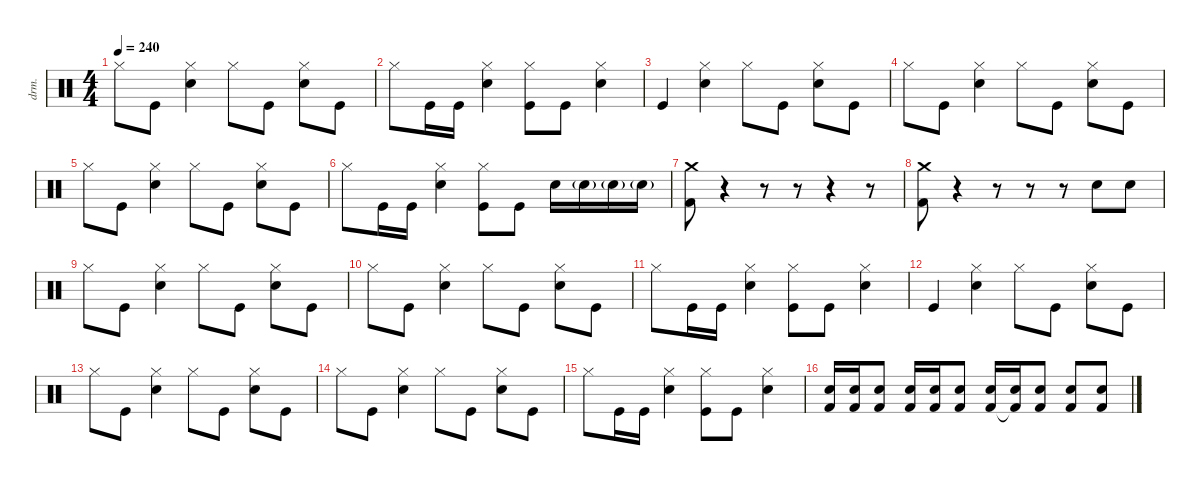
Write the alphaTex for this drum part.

\defaultSystemsLayout 4
\hideDynamics
\bracketExtendMode nobrackets
\track ("dany" "drm.") {instrument percussion}
\staff {score}
\articulation defaults
\ts (4 4)
\tempo 240
\clef neutral
\ks c "Hi-Hat (closed)".8{dy f beam Down} "Kick (hit)".8{beam Down}
("Snare (hit) 2" "Hi-Hat (closed)").4{beam Down} "Hi-Hat (closed)".8{beam Down} "Kick (hit)".8{beam Down} ("Snare (hit) 2" "Hi-Hat (closed)").8{beam Down} "Kick (hit)".8{beam Down} |
"Hi-Hat (closed)".8{beam Down} "Kick (hit)".16{beam Down} "Kick (hit)".16{beam Down} ("Snare (hit) 2" "Hi-Hat (closed)").4{beam Down} ("Kick (hit)" "Hi-Hat (closed)").8{beam Down} "Kick (hit)".8{beam Down} ("Snare (hit) 2" "Hi-Hat (closed)").4{beam Down} |
"Kick (hit)".4{beam Up} ("Snare (hit) 2" "Hi-Hat (closed)").4{beam Down} "Hi-Hat (closed)".8{beam Down} "Kick (hit)".8{beam Down} ("Snare (hit) 2" "Hi-Hat (closed)").8{beam Down} "Kick (hit)".8{beam Down} |
"Hi-Hat (closed)".8{beam Down} "Kick (hit)".8{beam Down} ("Snare (hit) 2" "Hi-Hat (closed)").4{beam Down} "Hi-Hat (closed)".8{beam Down} "Kick (hit)".8{beam Down} ("Snare (hit) 2" "Hi-Hat (closed)").8{beam Down} "Kick (hit)".8{beam Down} |
"Hi-Hat (closed)".8{beam Down} "Kick (hit)".8{beam Down} ("Snare (hit) 2" "Hi-Hat (closed)").4{beam Down} "Hi-Hat (closed)".8{beam Down} "Kick (hit)".8{beam Down} ("Snare (hit) 2" "Hi-Hat (closed)").8{beam Down} "Kick (hit)".8{beam Down} |
"Hi-Hat (closed)".8{beam Down} "Kick (hit)".16{beam Down} "Kick (hit)".16{beam Down} ("Snare (hit) 2" "Hi-Hat (closed)").4{beam Down} ("Kick (hit)" "Hi-Hat (closed)").8{beam Down} "Kick (hit)".8{beam Down} "Snare (hit) 2".16{dy mf beam Down} "Snare (hit) 2"{g}.16{dy f beam Down} "Snare (hit) 2"{g}.16{beam Down} "Snare (hit) 2"{g}.16{beam Down} |
("Kick (hit) 2" "Crash medium (hit)").8{beam Down} r.4{beam Down} r.8{beam Down} r.8{beam Down} r.4{beam Down} r.8{beam Down} |
("Kick (hit) 2" "Crash medium (hit)").8{beam Down} r.4{beam Down} r.8{beam Down} r.8{beam Down} r.8{beam Down} "Snare (hit) 2".8{beam Down} "Snare (hit) 2".8{beam Down} |
"Hi-Hat (closed)".8{beam Down} "Kick (hit)".8{beam Down} ("Snare (hit) 2" "Hi-Hat (closed)").4{beam Down} "Hi-Hat (closed)".8{beam Down} "Kick (hit)".8{beam Down} ("Snare (hit) 2" "Hi-Hat (closed)").8{beam Down} "Kick (hit)".8{beam Down} |
"Hi-Hat (closed)".8{beam Down} "Kick (hit)".8{beam Down} ("Snare (hit) 2" "Hi-Hat (closed)").4{beam Down} "Hi-Hat (closed)".8{beam Down} "Kick (hit)".8{beam Down} ("Snare (hit) 2" "Hi-Hat (closed)").8{beam Down} "Kick (hit)".8{beam Down} |
"Hi-Hat (closed)".8{beam Down} "Kick (hit)".16{beam Down} "Kick (hit)".16{beam Down} ("Snare (hit) 2" "Hi-Hat (closed)").4{beam Down} ("Kick (hit)" "Hi-Hat (closed)").8{beam Down} "Kick (hit)".8{beam Down} ("Snare (hit) 2" "Hi-Hat (closed)").4{beam Down} |
"Kick (hit)".4{beam Up} ("Snare (hit) 2" "Hi-Hat (closed)").4{beam Down} "Hi-Hat (closed)".8{beam Down} "Kick (hit)".8{beam Down} ("Snare (hit) 2" "Hi-Hat (closed)").8{beam Down} "Kick (hit)".8{beam Down} |
"Hi-Hat (closed)".8{beam Down} "Kick (hit)".8{beam Down} ("Snare (hit) 2" "Hi-Hat (closed)").4{beam Down} "Hi-Hat (closed)".8{beam Down} "Kick (hit)".8{beam Down} ("Snare (hit) 2" "Hi-Hat (closed)").8{beam Down} "Kick (hit)".8{beam Down} |
"Hi-Hat (closed)".8{beam Down} "Kick (hit)".8{beam Down} ("Snare (hit) 2" "Hi-Hat (closed)").4{beam Down} "Hi-Hat (closed)".8{beam Down} "Kick (hit)".8{beam Down} ("Snare (hit) 2" "Hi-Hat (closed)").8{beam Down} "Kick (hit)".8{beam Down} |
"Hi-Hat (closed)".8{beam Down} "Kick (hit)".16{beam Down} "Kick (hit)".16{beam Down} ("Snare (hit) 2" "Hi-Hat (closed)").4{beam Down} ("Kick (hit)" "Hi-Hat (closed)").8{beam Down} "Kick (hit)".8{beam Down} ("Snare (hit) 2" "Hi-Hat (closed)").4{beam Down} |
("Kick (hit) 2" "Snare (hit) 2").16{beam Up} ("Kick (hit) 2" "Snare (hit) 2").16{beam Up} ("Kick (hit) 2" "Snare (hit) 2").8{beam Up} ("Kick (hit) 2" "Snare (hit) 2").16{beam Up} ("Kick (hit) 2" "Snare (hit) 2").16{beam Up} ("Kick (hit) 2" "Snare (hit) 2").8{beam Up} ("Kick (hit) 2" "Snare (hit) 2").16{beam Up} ("Kick (hit) 2"{t} "Snare (hit) 2").16{beam Up} ("Kick (hit) 2" "Snare (hit) 2").8{beam Up} ("Kick (hit) 2" "Snare (hit) 2").8{beam Up} ("Kick (hit) 2" "Snare (hit) 2").8{beam Up}
